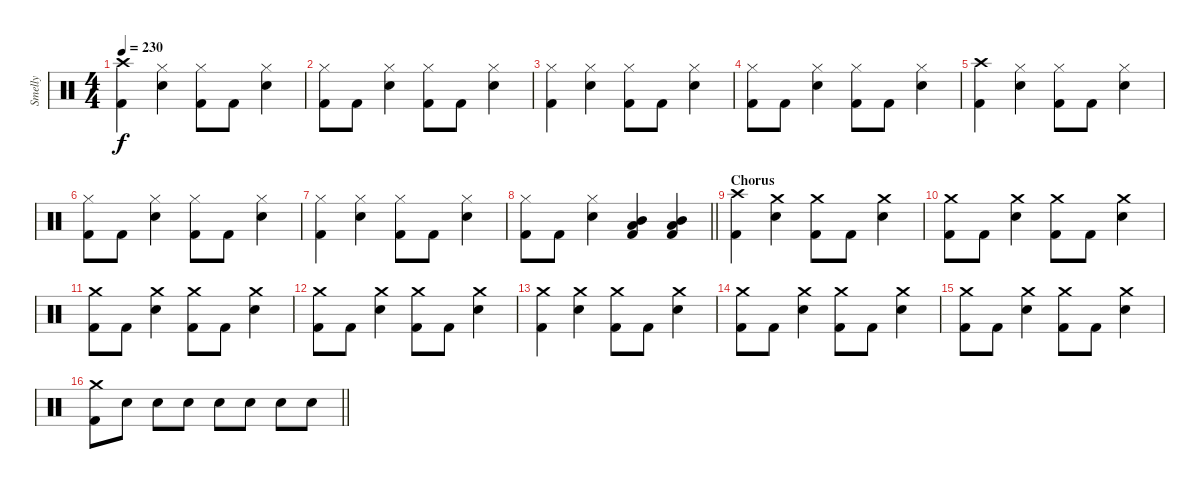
\track ("Smelly" "Smelly") {instrument percussion}
\staff {score}
\articulation defaults
\ts (4 4)
\tempo 230
\clef neutral
\ks c
("Crash high (hit)" "Kick (hit) 2").4{dy f} ("Hi-Hat (closed)" "Snare (hit) 2").4 ("Hi-Hat (closed)" "Kick (hit) 2").8 "Kick (hit) 2".8 ("Hi-Hat (closed)" "Snare (hit) 2").4 |
("Hi-Hat (closed)" "Kick (hit) 2").8 "Kick (hit) 2".8 ("Hi-Hat (closed)" "Snare (hit) 2").4 ("Hi-Hat (closed)" "Kick (hit) 2").8 "Kick (hit) 2".8 ("Hi-Hat (closed)" "Snare (hit) 2").4 |
("Hi-Hat (closed)" "Kick (hit) 2").4 ("Hi-Hat (closed)" "Snare (hit) 2").4 ("Hi-Hat (closed)" "Kick (hit) 2").8 "Kick (hit) 2".8 ("Hi-Hat (closed)" "Snare (hit) 2").4 |
("Hi-Hat (closed)" "Kick (hit) 2").8 "Kick (hit) 2".8 ("Hi-Hat (closed)" "Snare (hit) 2").4 ("Hi-Hat (closed)" "Kick (hit) 2").8 "Kick (hit) 2".8 ("Hi-Hat (closed)" "Snare (hit) 2").4 |
("Crash high (hit)" "Kick (hit) 2").4 ("Hi-Hat (closed)" "Snare (hit) 2").4 ("Hi-Hat (closed)" "Kick (hit) 2").8 "Kick (hit) 2".8 ("Hi-Hat (closed)" "Snare (hit) 2").4 |
("Hi-Hat (closed)" "Kick (hit) 2").8 "Kick (hit) 2".8 ("Hi-Hat (closed)" "Snare (hit) 2").4 ("Hi-Hat (closed)" "Kick (hit) 2").8 "Kick (hit) 2".8 ("Hi-Hat (closed)" "Snare (hit) 2").4 |
("Hi-Hat (closed)" "Kick (hit) 2").4 ("Hi-Hat (closed)" "Snare (hit) 2").4 ("Hi-Hat (closed)" "Kick (hit) 2").8 "Kick (hit) 2".8 ("Hi-Hat (closed)" "Snare (hit) 2").4 |
\barLineRight lightlight
("Hi-Hat (closed)" "Kick (hit) 2").8 "Kick (hit) 2".8 ("Hi-Hat (closed)" "Snare (hit) 2").4 ("Mid Tom (hit)" "Low Floor Tom (hit)" "Kick (hit) 2").4 ("Mid Tom (hit)" "Low Floor Tom (hit)" "Kick (hit) 2").4 |
\section ("" "Chorus")
("Crash high (hit)" "Kick (hit) 2").4 ("Crash medium (hit)" "Snare (hit) 2").4 ("Crash medium (hit)" "Kick (hit) 2").8 "Kick (hit) 2".8 ("Crash medium (hit)" "Snare (hit) 2").4 |
("Crash medium (hit)" "Kick (hit) 2").8 "Kick (hit) 2".8 ("Crash medium (hit)" "Snare (hit) 2").4 ("Crash medium (hit)" "Kick (hit) 2").8 "Kick (hit) 2".8 ("Crash medium (hit)" "Snare (hit) 2").4 |
("Crash medium (hit)" "Kick (hit) 2").8 "Kick (hit) 2".8 ("Crash medium (hit)" "Snare (hit) 2").4 ("Crash medium (hit)" "Kick (hit) 2").8 "Kick (hit) 2".8 ("Crash medium (hit)" "Snare (hit) 2").4 |
("Crash medium (hit)" "Kick (hit) 2").8 "Kick (hit) 2".8 ("Crash medium (hit)" "Snare (hit) 2").4 ("Crash medium (hit)" "Kick (hit) 2").8 "Kick (hit) 2".8 ("Crash medium (hit)" "Snare (hit) 2").4 |
("Crash medium (hit)" "Kick (hit) 2").4 ("Crash medium (hit)" "Snare (hit) 2").4 ("Crash medium (hit)" "Kick (hit) 2").8 "Kick (hit) 2".8 ("Crash medium (hit)" "Snare (hit) 2").4 |
("Crash medium (hit)" "Kick (hit) 2").8 "Kick (hit) 2".8 ("Crash medium (hit)" "Snare (hit) 2").4 ("Crash medium (hit)" "Kick (hit) 2").8 "Kick (hit) 2".8 ("Crash medium (hit)" "Snare (hit) 2").4 |
("Crash medium (hit)" "Kick (hit) 2").8 "Kick (hit) 2".8 ("Crash medium (hit)" "Snare (hit) 2").4 ("Crash medium (hit)" "Kick (hit) 2").8 "Kick (hit) 2".8 ("Crash medium (hit)" "Snare (hit) 2").4 |
\barLineRight lightlight
("Crash medium (hit)" "Kick (hit) 2").8 "Snare (hit) 2".8 "Snare (hit) 2".8 "Snare (hit) 2".8 "Snare (hit) 2".8 "Snare (hit) 2".8 "Snare (hit) 2".8 "Snare (hit) 2".8
